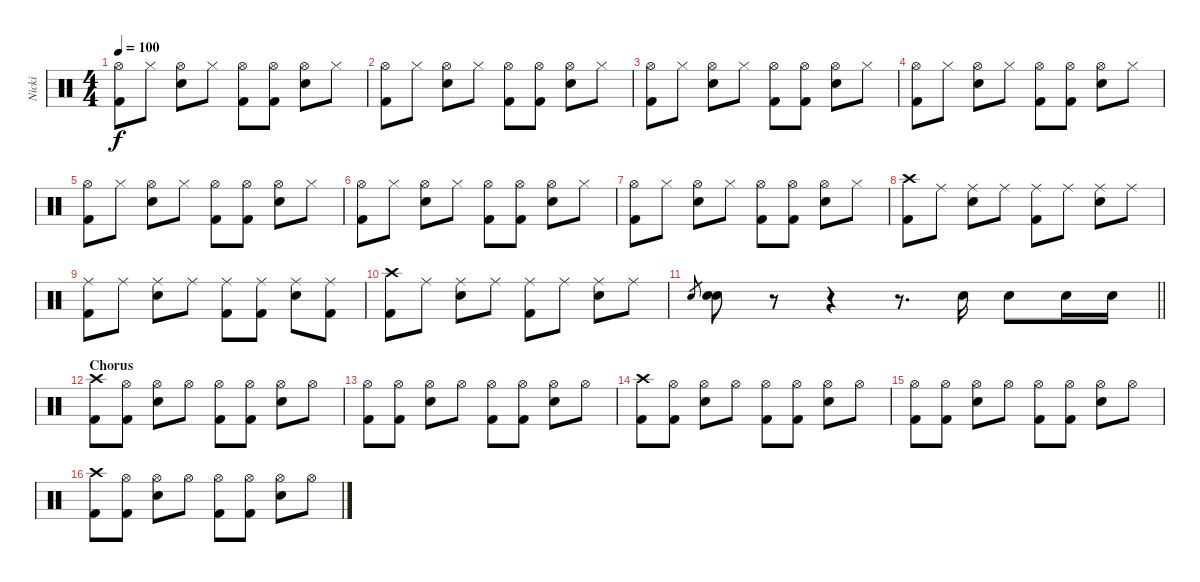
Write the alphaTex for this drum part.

\track ("Nicki" "Nicki") {instrument percussion}
\staff {score}
\articulation defaults
\ts (4 4)
\tempo 100
\clef neutral
\ks c
("Hi-Hat (open)" "Kick (hit) 2").8{dy f} "Hi-Hat (closed)".8 ("Hi-Hat (open)" "Snare (hit) 2").8 "Hi-Hat (closed)".8 ("Hi-Hat (open)" "Kick (hit) 2").8 ("Hi-Hat (open)" "Kick (hit) 2").8 ("Hi-Hat (open)" "Snare (hit) 2").8 "Hi-Hat (closed)".8 |
("Hi-Hat (open)" "Kick (hit) 2").8 "Hi-Hat (closed)".8 ("Hi-Hat (open)" "Snare (hit) 2").8 "Hi-Hat (closed)".8 ("Hi-Hat (open)" "Kick (hit) 2").8 ("Hi-Hat (open)" "Kick (hit) 2").8 ("Hi-Hat (open)" "Snare (hit) 2").8 "Hi-Hat (closed)".8 |
("Hi-Hat (open)" "Kick (hit) 2").8 "Hi-Hat (closed)".8 ("Hi-Hat (open)" "Snare (hit) 2").8 "Hi-Hat (closed)".8 ("Hi-Hat (open)" "Kick (hit) 2").8 ("Hi-Hat (open)" "Kick (hit) 2").8 ("Hi-Hat (open)" "Snare (hit) 2").8 "Hi-Hat (closed)".8 |
("Hi-Hat (open)" "Kick (hit) 2").8 "Hi-Hat (closed)".8 ("Hi-Hat (open)" "Snare (hit) 2").8 "Hi-Hat (closed)".8 ("Hi-Hat (open)" "Kick (hit) 2").8 ("Hi-Hat (open)" "Kick (hit) 2").8 ("Hi-Hat (open)" "Snare (hit) 2").8 "Hi-Hat (closed)".8 |
("Hi-Hat (open)" "Kick (hit) 2").8 "Hi-Hat (closed)".8 ("Hi-Hat (open)" "Snare (hit) 2").8 "Hi-Hat (closed)".8 ("Hi-Hat (open)" "Kick (hit) 2").8 ("Hi-Hat (open)" "Kick (hit) 2").8 ("Hi-Hat (open)" "Snare (hit) 2").8 "Hi-Hat (closed)".8 |
("Hi-Hat (open)" "Kick (hit) 2").8 "Hi-Hat (closed)".8 ("Hi-Hat (open)" "Snare (hit) 2").8 "Hi-Hat (closed)".8 ("Hi-Hat (open)" "Kick (hit) 2").8 ("Hi-Hat (open)" "Kick (hit) 2").8 ("Hi-Hat (open)" "Snare (hit) 2").8 "Hi-Hat (closed)".8 |
("Hi-Hat (open)" "Kick (hit) 2").8 "Hi-Hat (closed)".8 ("Hi-Hat (open)" "Snare (hit) 2").8 "Hi-Hat (closed)".8 ("Hi-Hat (open)" "Kick (hit) 2").8 ("Hi-Hat (open)" "Kick (hit) 2").8 ("Hi-Hat (open)" "Snare (hit) 2").8 "Hi-Hat (closed)".8 |
("Crash high (hit)" "Kick (hit) 2").8 "Ride (middle)".8 ("Ride (middle)" "Snare (hit) 2").8 "Ride (middle)".8 ("Ride (middle)" "Kick (hit) 2").8 "Ride (middle)".8 ("Ride (middle)" "Snare (hit) 2").8 "Ride (middle)".8 |
("Ride (middle)" "Kick (hit) 2").8 "Ride (middle)".8 ("Ride (middle)" "Snare (hit) 2").8 "Ride (middle)".8 ("Ride (middle)" "Kick (hit) 2").8 ("Ride (middle)" "Kick (hit) 2").8 ("Ride (middle)" "Snare (hit) 2").8 ("Ride (middle)" "Kick (hit) 2").8 |
("Crash high (hit)" "Kick (hit) 2").8 "Ride (middle)".8 ("Ride (middle)" "Snare (hit) 2").8 "Ride (middle)".8 ("Ride (middle)" "Kick (hit) 2").8 "Ride (middle)".8 ("Ride (middle)" "Snare (hit) 2").8 "Ride (middle)".8 |
\barLineRight lightlight "Snare (hit) 2".8{gr}
("Snare (hit) 2" "Snare (hit) 2").8 r.8 r.4 r.8{d} "Snare (hit) 2".16 "Snare (hit) 2".8 "Snare (hit) 2".16 "Snare (hit) 2".16 |
\section ("" "Chorus")
("Crash high (hit)" "Kick (hit) 2").8 ("Hi-Hat (open)" "Kick (hit) 2").8 ("Hi-Hat (open)" "Snare (hit) 2").8 "Hi-Hat (open)".8 ("Hi-Hat (open)" "Kick (hit) 2").8 ("Hi-Hat (open)" "Kick (hit) 2").8 ("Hi-Hat (open)" "Snare (hit) 2").8 "Hi-Hat (open)".8 |
("Hi-Hat (open)" "Kick (hit) 2").8 ("Hi-Hat (open)" "Kick (hit) 2").8 ("Hi-Hat (open)" "Snare (hit) 2").8 "Hi-Hat (open)".8 ("Hi-Hat (open)" "Kick (hit) 2").8 ("Hi-Hat (open)" "Kick (hit) 2").8 ("Hi-Hat (open)" "Snare (hit) 2").8 "Hi-Hat (open)".8 |
("Crash high (hit)" "Kick (hit) 2").8 ("Hi-Hat (open)" "Kick (hit) 2").8 ("Hi-Hat (open)" "Snare (hit) 2").8 "Hi-Hat (open)".8 ("Hi-Hat (open)" "Kick (hit) 2").8 ("Hi-Hat (open)" "Kick (hit) 2").8 ("Hi-Hat (open)" "Snare (hit) 2").8 "Hi-Hat (open)".8 |
("Hi-Hat (open)" "Kick (hit) 2").8 ("Hi-Hat (open)" "Kick (hit) 2").8 ("Hi-Hat (open)" "Snare (hit) 2").8 "Hi-Hat (open)".8 ("Hi-Hat (open)" "Kick (hit) 2").8 ("Hi-Hat (open)" "Kick (hit) 2").8 ("Hi-Hat (open)" "Snare (hit) 2").8 "Hi-Hat (open)".8 |
("Crash high (hit)" "Kick (hit) 2").8 ("Hi-Hat (open)" "Kick (hit) 2").8 ("Hi-Hat (open)" "Snare (hit) 2").8 "Hi-Hat (open)".8 ("Hi-Hat (open)" "Kick (hit) 2").8 ("Hi-Hat (open)" "Kick (hit) 2").8 ("Hi-Hat (open)" "Snare (hit) 2").8 "Hi-Hat (open)".8
